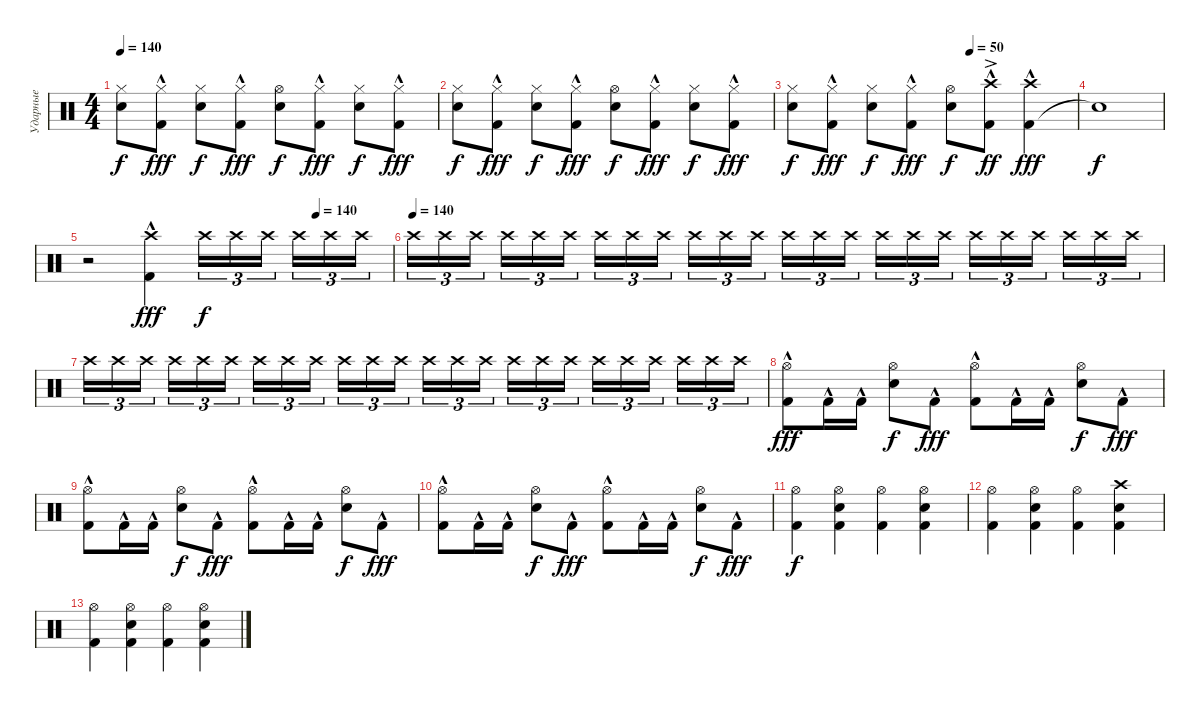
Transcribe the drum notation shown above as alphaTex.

\track ("Ударные" "Ударные") {instrument percussion}
\staff {score}
\articulation defaults
\ts (4 4)
\tempo 140
\clef neutral
\ks c
("Snare (hit) 2" "Hi-Hat (closed)").8{dy f} ("Kick (hit) 2"{hac} "Hi-Hat (closed)").8{dy fff} ("Snare (hit) 2" "Hi-Hat (closed)").8{dy f} ("Kick (hit) 2"{hac} "Hi-Hat (closed)").8{dy fff} ("Snare (hit) 2" "Hi-Hat (open)").8{dy f} ("Kick (hit) 2"{hac} "Hi-Hat (closed)").8{dy fff} ("Snare (hit) 2" "Hi-Hat (closed)").8{dy f} ("Kick (hit) 2"{hac} "Hi-Hat (closed)").8{dy fff} |
("Snare (hit) 2" "Hi-Hat (closed)").8{dy f} ("Kick (hit) 2"{hac} "Hi-Hat (closed)").8{dy fff} ("Snare (hit) 2" "Hi-Hat (closed)").8{dy f} ("Kick (hit) 2"{hac} "Hi-Hat (closed)").8{dy fff} ("Snare (hit) 2" "Hi-Hat (open)").8{dy f} ("Kick (hit) 2"{hac} "Hi-Hat (closed)").8{dy fff} ("Snare (hit) 2" "Hi-Hat (closed)").8{dy f} ("Kick (hit) 2"{hac} "Hi-Hat (closed)").8{dy fff} |
\tempo (50 0.625)
("Snare (hit) 2" "Hi-Hat (closed)").8{dy f} ("Kick (hit) 2"{hac} "Hi-Hat (closed)").8{dy fff} ("Snare (hit) 2" "Hi-Hat (closed)").8{dy f} ("Kick (hit) 2"{hac} "Hi-Hat (closed)").8{dy fff} ("Snare (hit) 2" "Hi-Hat (open)").8{dy f} ("Kick (hit) 2"{hac} "Crash high (hit)"{ac}).8{dy ff} ("Kick (hit) 2"{hac} "Crash high (hit)"{hac}).4{dy fff} |
"Snare (hit)"{t}.1{dy f} |
\tempo (140 0.75)
r.2 ("Kick (hit) 2"{hac} "Crash high (hit)"{hac}).4{dy fff} "Crash high (hit)".16{tu (3 2) dy f} "Crash high (hit)".16{tu (3 2)} "Crash high (hit)".16{tu (3 2) beam splitsecondary} "Crash high (hit)".16{tu (3 2)} "Crash high (hit)".16{tu (3 2)} "Crash high (hit)".16{tu (3 2)} |
\tempo (140)
"Crash high (hit)".16{tu (3 2)} "Crash high (hit)".16{tu (3 2)} "Crash high (hit)".16{tu (3 2) beam splitsecondary} "Crash high (hit)".16{tu (3 2)} "Crash high (hit)".16{tu (3 2)} "Crash high (hit)".16{tu (3 2)} "Crash high (hit)".16{tu (3 2)} "Crash high (hit)".16{tu (3 2)} "Crash high (hit)".16{tu (3 2) beam splitsecondary} "Crash high (hit)".16{tu (3 2)} "Crash high (hit)".16{tu (3 2)} "Crash high (hit)".16{tu (3 2)} "Crash high (hit)".16{tu (3 2)} "Crash high (hit)".16{tu (3 2)} "Crash high (hit)".16{tu (3 2) beam splitsecondary} "Crash high (hit)".16{tu (3 2)} "Crash high (hit)".16{tu (3 2)} "Crash high (hit)".16{tu (3 2)} "Crash high (hit)".16{tu (3 2)} "Crash high (hit)".16{tu (3 2)} "Crash high (hit)".16{tu (3 2) beam splitsecondary} "Crash high (hit)".16{tu (3 2)} "Crash high (hit)".16{tu (3 2)} "Crash high (hit)".16{tu (3 2)} |
"Crash high (hit)".16{tu (3 2) volume 3} "Crash high (hit)".16{tu (3 2)} "Crash high (hit)".16{tu (3 2) beam splitsecondary} "Crash high (hit)".16{tu (3 2)} "Crash high (hit)".16{tu (3 2)} "Crash high (hit)".16{tu (3 2)} "Crash high (hit)".16{tu (3 2)} "Crash high (hit)".16{tu (3 2)} "Crash high (hit)".16{tu (3 2) beam splitsecondary} "Crash high (hit)".16{tu (3 2)} "Crash high (hit)".16{tu (3 2)} "Crash high (hit)".16{tu (3 2)} "Crash high (hit)".16{tu (3 2)} "Crash high (hit)".16{tu (3 2)} "Crash high (hit)".16{tu (3 2) beam splitsecondary} "Crash high (hit)".16{tu (3 2)} "Crash high (hit)".16{tu (3 2)} "Crash high (hit)".16{tu (3 2)} "Crash high (hit)".16{tu (3 2)} "Crash high (hit)".16{tu (3 2)} "Crash high (hit)".16{tu (3 2) beam splitsecondary} "Crash high (hit)".16{tu (3 2)} "Crash high (hit)".16{tu (3 2)} "Crash high (hit)".16{tu (3 2)} |
("Kick (hit) 2"{hac} "Hi-Hat (open)").8{dy fff volume 10} "Kick (hit) 2"{hac}.16 "Kick (hit) 2"{hac}.16 ("Snare (hit) 2" "Hi-Hat (open)").8{dy f} "Kick (hit) 2"{hac}.8{dy fff} ("Kick (hit) 2"{hac} "Hi-Hat (open)").8 "Kick (hit) 2"{hac}.16 "Kick (hit) 2"{hac}.16 ("Snare (hit) 2" "Hi-Hat (open)").8{dy f} "Kick (hit) 2"{hac}.8{dy fff} |
("Kick (hit) 2"{hac} "Hi-Hat (open)").8 "Kick (hit) 2"{hac}.16 "Kick (hit) 2"{hac}.16 ("Snare (hit) 2" "Hi-Hat (open)").8{dy f} "Kick (hit) 2"{hac}.8{dy fff} ("Kick (hit) 2"{hac} "Hi-Hat (open)").8 "Kick (hit) 2"{hac}.16 "Kick (hit) 2"{hac}.16 ("Snare (hit) 2" "Hi-Hat (open)").8{dy f} "Kick (hit) 2"{hac}.8{dy fff} |
("Kick (hit) 2"{hac} "Hi-Hat (open)").8 "Kick (hit) 2"{hac}.16 "Kick (hit) 2"{hac}.16 ("Snare (hit) 2" "Hi-Hat (open)").8{dy f} "Kick (hit) 2"{hac}.8{dy fff} ("Kick (hit) 2"{hac} "Hi-Hat (open)").8 "Kick (hit) 2"{hac}.16 "Kick (hit) 2"{hac}.16 ("Snare (hit) 2" "Hi-Hat (open)").8{dy f} "Kick (hit) 2"{hac}.8{dy fff} |
("Kick (hit) 2" "Hi-Hat (open)").4{dy f} ("Kick (hit) 2" "Snare (hit) 2" "Hi-Hat (open)").4 ("Kick (hit) 2" "Hi-Hat (open)").4 ("Kick (hit) 2" "Snare (hit) 2" "Hi-Hat (open)").4 |
("Kick (hit) 2" "Hi-Hat (open)").4 ("Kick (hit) 2" "Snare (hit) 2" "Hi-Hat (open)").4 ("Kick (hit) 2" "Hi-Hat (open)").4 ("Kick (hit) 2" "Snare (hit) 2" "Crash high (hit)").4 |
("Kick (hit) 2" "Hi-Hat (open)").4 ("Kick (hit) 2" "Snare (hit) 2" "Hi-Hat (open)").4 ("Kick (hit) 2" "Hi-Hat (open)").4 ("Kick (hit) 2" "Snare (hit) 2" "Hi-Hat (open)").4
